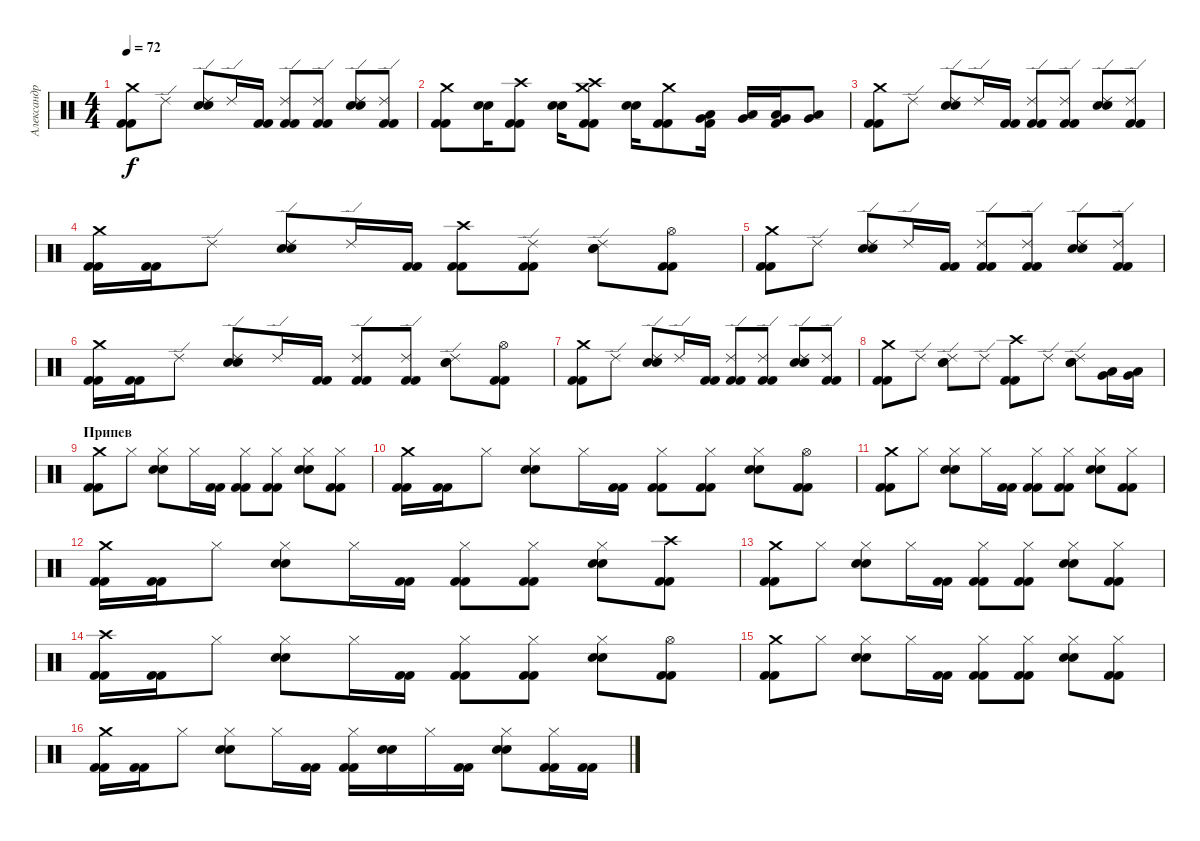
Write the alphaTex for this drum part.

\track ("Александр Манякин (Drums)" "Александр ") {instrument percussion}
\staff {score}
\articulation defaults
\ts (4 4)
\tempo 72
\clef neutral
\ks c
("Crash medium (hit)" "Kick (hit) 2" "Kick (hit) 2").8{dy f} "Ride (edge) 2".8 ("Ride (edge) 2" "Electric Snare (hit)" "Electric Snare (hit)").8 "Ride (edge) 2".16 ("Kick (hit) 2" "Kick (hit) 2").16 ("Ride (edge) 2" "Kick (hit) 2" "Kick (hit) 2").8 ("Ride (edge) 2" "Kick (hit) 2" "Kick (hit) 2").8 ("Ride (edge) 2" "Electric Snare (hit)" "Electric Snare (hit)").8 ("Ride (edge) 2" "Kick (hit) 2" "Kick (hit) 2").8 |
("Crash medium (hit)" "Kick (hit) 2" "Kick (hit) 2").8 ("Electric Snare (hit)" "Electric Snare (hit)").16 ("Crash high (hit)" "Kick (hit) 2" "Kick (hit) 2").8 ("Electric Snare (hit)" "Electric Snare (hit)").16 ("Crash high (hit)" "Crash medium (hit)" "Kick (hit) 2" "Kick (hit) 2").8 ("Electric Snare (hit)" "Electric Snare (hit)").16 ("Crash medium (hit)" "Kick (hit) 2" "Kick (hit) 2").8 ("Low Tom (hit)" "Very Low Tom (hit)" "Kick (hit) 2").16 ("Low Tom (hit)" "Very Low Tom (hit)").16 ("Low Tom (hit)" "Very Low Tom (hit)" "Kick (hit) 2").16 ("Low Tom (hit)" "Very Low Tom (hit)").8 |
("Crash medium (hit)" "Kick (hit) 2" "Kick (hit) 2").8 "Ride (edge) 2".8 ("Ride (edge) 2" "Electric Snare (hit)" "Electric Snare (hit)").8 "Ride (edge) 2".16 ("Kick (hit) 2" "Kick (hit) 2").16 ("Ride (edge) 2" "Kick (hit) 2" "Kick (hit) 2").8 ("Ride (edge) 2" "Kick (hit) 2" "Kick (hit) 2").8 ("Ride (edge) 2" "Electric Snare (hit)" "Electric Snare (hit)").8 ("Ride (edge) 2" "Kick (hit) 2" "Kick (hit) 2").8 |
("Crash medium (hit)" "Kick (hit) 2" "Kick (hit) 2").16 ("Kick (hit) 2" "Kick (hit) 2").16 "Ride (edge) 2".8 ("Ride (edge) 2" "Electric Snare (hit)" "Electric Snare (hit)").8 "Ride (edge) 2".16 ("Kick (hit) 2" "Kick (hit) 2").16 ("Crash high (hit)" "Kick (hit) 2" "Kick (hit) 2").8 ("Ride (edge) 2" "Kick (hit) 2" "Kick (hit) 2").8 ("Ride (edge) 2" "Electric Snare (hit)" "Electric Snare (hit)").8 ("Hi-Hat (open)" "Kick (hit) 2" "Kick (hit) 2").8 |
("Crash medium (hit)" "Kick (hit) 2" "Kick (hit) 2").8 "Ride (edge) 2".8 ("Ride (edge) 2" "Electric Snare (hit)" "Electric Snare (hit)").8 "Ride (edge) 2".16 ("Kick (hit) 2" "Kick (hit) 2").16 ("Ride (edge) 2" "Kick (hit) 2" "Kick (hit) 2").8 ("Ride (edge) 2" "Kick (hit) 2" "Kick (hit) 2").8 ("Ride (edge) 2" "Electric Snare (hit)" "Electric Snare (hit)").8 ("Ride (edge) 2" "Kick (hit) 2" "Kick (hit) 2").8 |
("Crash medium (hit)" "Kick (hit) 2" "Kick (hit) 2").16 ("Kick (hit) 2" "Kick (hit) 2").16 "Ride (edge) 2".8 ("Ride (edge) 2" "Electric Snare (hit)" "Electric Snare (hit)").8 "Ride (edge) 2".16 ("Kick (hit) 2" "Kick (hit) 2").16 ("Ride (edge) 2" "Kick (hit) 2" "Kick (hit) 2").8 ("Ride (edge) 2" "Kick (hit) 2" "Kick (hit) 2").8 ("Ride (edge) 2" "Electric Snare (hit)" "Electric Snare (hit)").8 ("Hi-Hat (open)" "Kick (hit) 2" "Kick (hit) 2").8 |
("Crash medium (hit)" "Kick (hit) 2" "Kick (hit) 2").8 "Ride (edge) 2".8 ("Ride (edge) 2" "Electric Snare (hit)" "Electric Snare (hit)").8 "Ride (edge) 2".16 ("Kick (hit) 2" "Kick (hit) 2").16 ("Ride (edge) 2" "Kick (hit) 2" "Kick (hit) 2").8 ("Ride (edge) 2" "Kick (hit) 2" "Kick (hit) 2").8 ("Ride (edge) 2" "Electric Snare (hit)" "Electric Snare (hit)").8 ("Ride (edge) 2" "Kick (hit) 2" "Kick (hit) 2").8 |
("Crash medium (hit)" "Kick (hit) 2" "Kick (hit) 2").8 "Ride (edge) 2".8 ("Ride (edge) 2" "Electric Snare (hit)" "Electric Snare (hit)").8 "Ride (edge) 2".8 ("Crash high (hit)" "Kick (hit) 2" "Kick (hit) 2").8 "Ride (edge) 2".8 ("Ride (edge) 2" "Electric Snare (hit)" "Electric Snare (hit)").8 ("Very Low Tom (hit)" "Low Tom (hit)").16 ("Very Low Tom (hit)" "Low Tom (hit)").16 |
\section ("" "Припев")
("Crash medium (hit)" "Kick (hit) 2" "Kick (hit) 2").8 "Hi-Hat (closed)".8 ("Hi-Hat (closed)" "Electric Snare (hit)" "Electric Snare (hit)").8 "Hi-Hat (closed)".16 ("Kick (hit) 2" "Kick (hit) 2").16 ("Hi-Hat (closed)" "Kick (hit) 2" "Kick (hit) 2").8 ("Hi-Hat (closed)" "Kick (hit) 2" "Kick (hit) 2").8 ("Hi-Hat (closed)" "Electric Snare (hit)" "Electric Snare (hit)").8 ("Hi-Hat (closed)" "Kick (hit) 2" "Kick (hit) 2").8 |
("Crash medium (hit)" "Kick (hit) 2" "Kick (hit) 2").16 ("Kick (hit) 2" "Kick (hit) 2").16 "Hi-Hat (closed)".8 ("Hi-Hat (closed)" "Electric Snare (hit)" "Electric Snare (hit)").8 "Hi-Hat (closed)".16 ("Kick (hit) 2" "Kick (hit) 2").16 ("Hi-Hat (closed)" "Kick (hit) 2" "Kick (hit) 2").8 ("Hi-Hat (closed)" "Kick (hit) 2" "Kick (hit) 2").8 ("Hi-Hat (closed)" "Electric Snare (hit)" "Electric Snare (hit)").8 ("Hi-Hat (open)" "Kick (hit) 2" "Kick (hit) 2").8 |
("Crash medium (hit)" "Kick (hit) 2" "Kick (hit) 2").8 "Hi-Hat (closed)".8 ("Hi-Hat (closed)" "Electric Snare (hit)" "Electric Snare (hit)").8 "Hi-Hat (closed)".16 ("Kick (hit) 2" "Kick (hit) 2").16 ("Hi-Hat (closed)" "Kick (hit) 2" "Kick (hit) 2").8 ("Hi-Hat (closed)" "Kick (hit) 2" "Kick (hit) 2").8 ("Hi-Hat (closed)" "Electric Snare (hit)" "Electric Snare (hit)").8 ("Hi-Hat (closed)" "Kick (hit) 2" "Kick (hit) 2").8 |
("Crash medium (hit)" "Kick (hit) 2" "Kick (hit) 2").16 ("Kick (hit) 2" "Kick (hit) 2").16 "Hi-Hat (closed)".8 ("Hi-Hat (closed)" "Electric Snare (hit)" "Electric Snare (hit)").8 "Hi-Hat (closed)".16 ("Kick (hit) 2" "Kick (hit) 2").16 ("Hi-Hat (closed)" "Kick (hit) 2" "Kick (hit) 2").8 ("Hi-Hat (closed)" "Kick (hit) 2" "Kick (hit) 2").8 ("Hi-Hat (closed)" "Electric Snare (hit)" "Electric Snare (hit)").8 ("Crash high (hit)" "Kick (hit) 2" "Kick (hit) 2").8 |
("Crash medium (hit)" "Kick (hit) 2" "Kick (hit) 2").8 "Hi-Hat (closed)".8 ("Hi-Hat (closed)" "Electric Snare (hit)" "Electric Snare (hit)").8 "Hi-Hat (closed)".16 ("Kick (hit) 2" "Kick (hit) 2").16 ("Hi-Hat (closed)" "Kick (hit) 2" "Kick (hit) 2").8 ("Hi-Hat (closed)" "Kick (hit) 2" "Kick (hit) 2").8 ("Hi-Hat (closed)" "Electric Snare (hit)" "Electric Snare (hit)").8 ("Hi-Hat (closed)" "Kick (hit) 2" "Kick (hit) 2").8 |
("Crash high (hit)" "Kick (hit) 2" "Kick (hit) 2").16 ("Kick (hit) 2" "Kick (hit) 2").16 "Hi-Hat (closed)".8 ("Hi-Hat (closed)" "Electric Snare (hit)" "Electric Snare (hit)").8 "Hi-Hat (closed)".16 ("Kick (hit) 2" "Kick (hit) 2").16 ("Hi-Hat (closed)" "Kick (hit) 2" "Kick (hit) 2").8 ("Hi-Hat (closed)" "Kick (hit) 2" "Kick (hit) 2").8 ("Hi-Hat (closed)" "Electric Snare (hit)" "Electric Snare (hit)").8 ("Hi-Hat (open)" "Kick (hit) 2" "Kick (hit) 2").8 |
("Crash medium (hit)" "Kick (hit) 2" "Kick (hit) 2").8 "Hi-Hat (closed)".8 ("Hi-Hat (closed)" "Electric Snare (hit)" "Electric Snare (hit)").8 "Hi-Hat (closed)".16 ("Kick (hit) 2" "Kick (hit) 2").16 ("Hi-Hat (closed)" "Kick (hit) 2" "Kick (hit) 2").8 ("Hi-Hat (closed)" "Kick (hit) 2" "Kick (hit) 2").8 ("Hi-Hat (closed)" "Electric Snare (hit)" "Electric Snare (hit)").8 ("Hi-Hat (closed)" "Kick (hit) 2" "Kick (hit) 2").8 |
("Crash medium (hit)" "Kick (hit) 2" "Kick (hit) 2").16 ("Kick (hit) 2" "Kick (hit) 2").16 "Hi-Hat (closed)".8 ("Hi-Hat (closed)" "Electric Snare (hit)" "Electric Snare (hit)").8 "Hi-Hat (closed)".16 ("Kick (hit) 2" "Kick (hit) 2").16 ("Hi-Hat (closed)" "Kick (hit) 2" "Kick (hit) 2").16 ("Electric Snare (hit)" "Electric Snare (hit)").16 "Hi-Hat (closed)".16 ("Kick (hit) 2" "Kick (hit) 2").16 ("Hi-Hat (closed)" "Electric Snare (hit)" "Electric Snare (hit)").8 ("Hi-Hat (closed)" "Kick (hit) 2" "Kick (hit) 2").16 ("Kick (hit) 2" "Kick (hit) 2").16
